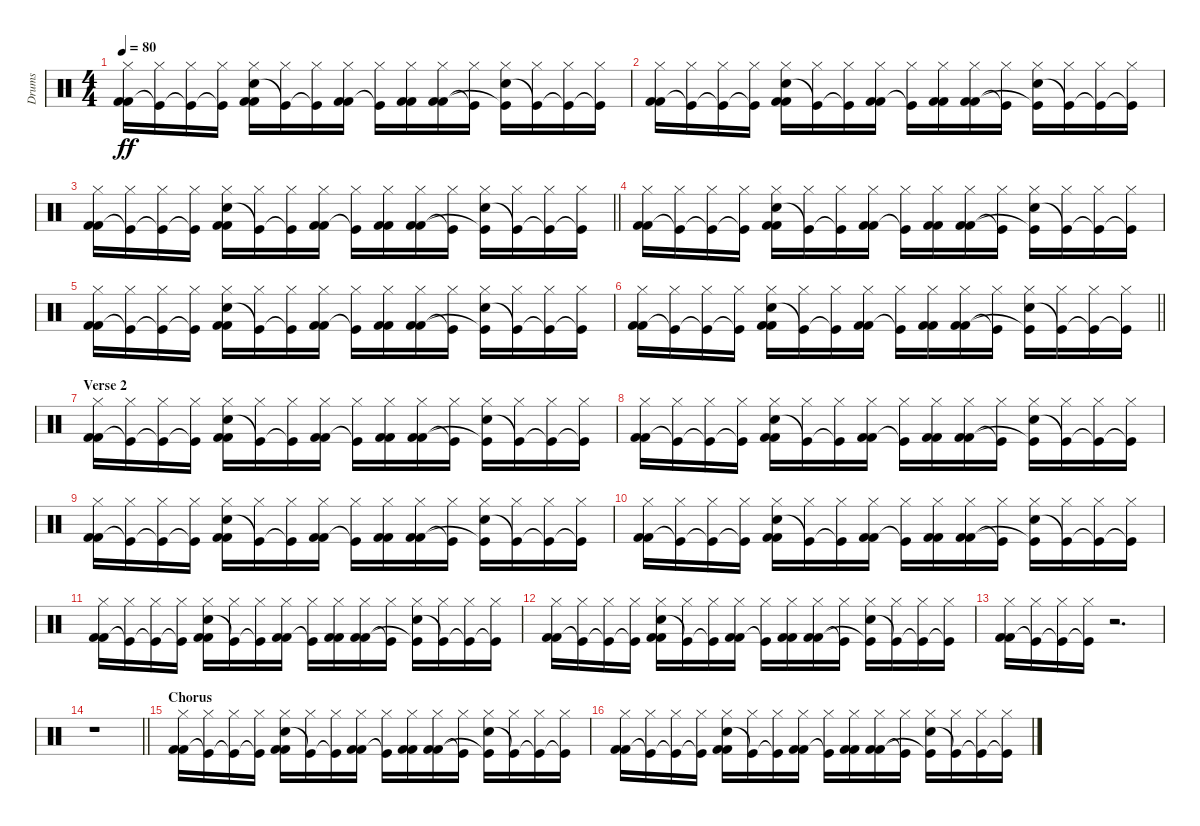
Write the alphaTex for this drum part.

\track ("Drums" "Drums") {instrument percussion}
\staff {score}
\articulation defaults
\ts (4 4)
\tempo 80
\clef neutral
\ks c
("Hi-Hat (closed)" "Kick (hit) 2" "Kick (hit) 2").16{dy ff} ("Hi-Hat (closed)" "Kick (hit)"{t}).16 ("Hi-Hat (closed)" "Kick (hit)"{t}).16 ("Hi-Hat (closed)" "Kick (hit)"{t}).16 ("Hi-Hat (closed)" "Electric Snare (hit)" "Kick (hit) 2" "Kick (hit) 2").16 ("Hi-Hat (closed)" "Kick (hit)"{t}).16 ("Hi-Hat (closed)" "Kick (hit)"{t}).16 ("Hi-Hat (closed)" "Kick (hit) 2" "Kick (hit) 2").16 ("Hi-Hat (closed)" "Kick (hit)"{t}).16 ("Hi-Hat (closed)" "Kick (hit) 2" "Kick (hit) 2").16 ("Hi-Hat (closed)" "Kick (hit) 2" "Kick (hit) 2").16 ("Hi-Hat (closed)" "Kick (hit)"{t}).16 ("Hi-Hat (closed)" "Electric Snare (hit)" "Kick (hit)"{t}).16 ("Hi-Hat (closed)" "Kick (hit)"{t}).16 ("Hi-Hat (closed)" "Kick (hit)"{t}).16 ("Hi-Hat (closed)" "Kick (hit)"{t}).16 |
("Hi-Hat (closed)" "Kick (hit) 2" "Kick (hit) 2").16 ("Hi-Hat (closed)" "Kick (hit)"{t}).16 ("Hi-Hat (closed)" "Kick (hit)"{t}).16 ("Hi-Hat (closed)" "Kick (hit)"{t}).16 ("Hi-Hat (closed)" "Electric Snare (hit)" "Kick (hit) 2" "Kick (hit) 2").16 ("Hi-Hat (closed)" "Kick (hit)"{t}).16 ("Hi-Hat (closed)" "Kick (hit)"{t}).16 ("Hi-Hat (closed)" "Kick (hit) 2" "Kick (hit) 2").16 ("Hi-Hat (closed)" "Kick (hit)"{t}).16 ("Hi-Hat (closed)" "Kick (hit) 2" "Kick (hit) 2").16 ("Hi-Hat (closed)" "Kick (hit) 2" "Kick (hit) 2").16 ("Hi-Hat (closed)" "Kick (hit)"{t}).16 ("Hi-Hat (closed)" "Electric Snare (hit)" "Kick (hit)"{t}).16 ("Hi-Hat (closed)" "Kick (hit)"{t}).16 ("Hi-Hat (closed)" "Kick (hit)"{t}).16 ("Hi-Hat (closed)" "Kick (hit)"{t}).16 |
\barLineRight lightlight
("Hi-Hat (closed)" "Kick (hit) 2" "Kick (hit) 2").16 ("Hi-Hat (closed)" "Kick (hit)"{t}).16 ("Hi-Hat (closed)" "Kick (hit)"{t}).16 ("Hi-Hat (closed)" "Kick (hit)"{t}).16 ("Hi-Hat (closed)" "Electric Snare (hit)" "Kick (hit) 2" "Kick (hit) 2").16 ("Hi-Hat (closed)" "Kick (hit)"{t}).16 ("Hi-Hat (closed)" "Kick (hit)"{t}).16 ("Hi-Hat (closed)" "Kick (hit) 2" "Kick (hit) 2").16 ("Hi-Hat (closed)" "Kick (hit)"{t}).16 ("Hi-Hat (closed)" "Kick (hit) 2" "Kick (hit) 2").16 ("Hi-Hat (closed)" "Kick (hit) 2" "Kick (hit) 2").16 ("Hi-Hat (closed)" "Kick (hit)"{t}).16 ("Hi-Hat (closed)" "Electric Snare (hit)" "Kick (hit)"{t}).16 ("Hi-Hat (closed)" "Kick (hit)"{t}).16 ("Hi-Hat (closed)" "Kick (hit)"{t}).16 ("Hi-Hat (closed)" "Kick (hit)"{t}).16 |
("Hi-Hat (closed)" "Kick (hit) 2" "Kick (hit) 2").16 ("Hi-Hat (closed)" "Kick (hit)"{t}).16 ("Hi-Hat (closed)" "Kick (hit)"{t}).16 ("Hi-Hat (closed)" "Kick (hit)"{t}).16 ("Hi-Hat (closed)" "Electric Snare (hit)" "Kick (hit) 2" "Kick (hit) 2").16 ("Hi-Hat (closed)" "Kick (hit)"{t}).16 ("Hi-Hat (closed)" "Kick (hit)"{t}).16 ("Hi-Hat (closed)" "Kick (hit) 2" "Kick (hit) 2").16 ("Hi-Hat (closed)" "Kick (hit)"{t}).16 ("Hi-Hat (closed)" "Kick (hit) 2" "Kick (hit) 2").16 ("Hi-Hat (closed)" "Kick (hit) 2" "Kick (hit) 2").16 ("Hi-Hat (closed)" "Kick (hit)"{t}).16 ("Hi-Hat (closed)" "Electric Snare (hit)" "Kick (hit)"{t}).16 ("Hi-Hat (closed)" "Kick (hit)"{t}).16 ("Hi-Hat (closed)" "Kick (hit)"{t}).16 ("Hi-Hat (closed)" "Kick (hit)"{t}).16 |
("Hi-Hat (closed)" "Kick (hit) 2" "Kick (hit) 2").16 ("Hi-Hat (closed)" "Kick (hit)"{t}).16 ("Hi-Hat (closed)" "Kick (hit)"{t}).16 ("Hi-Hat (closed)" "Kick (hit)"{t}).16 ("Hi-Hat (closed)" "Electric Snare (hit)" "Kick (hit) 2" "Kick (hit) 2").16 ("Hi-Hat (closed)" "Kick (hit)"{t}).16 ("Hi-Hat (closed)" "Kick (hit)"{t}).16 ("Hi-Hat (closed)" "Kick (hit) 2" "Kick (hit) 2").16 ("Hi-Hat (closed)" "Kick (hit)"{t}).16 ("Hi-Hat (closed)" "Kick (hit) 2" "Kick (hit) 2").16 ("Hi-Hat (closed)" "Kick (hit) 2" "Kick (hit) 2").16 ("Hi-Hat (closed)" "Kick (hit)"{t}).16 ("Hi-Hat (closed)" "Electric Snare (hit)" "Kick (hit)"{t}).16 ("Hi-Hat (closed)" "Kick (hit)"{t}).16 ("Hi-Hat (closed)" "Kick (hit)"{t}).16 ("Hi-Hat (closed)" "Kick (hit)"{t}).16 |
\barLineRight lightlight
("Hi-Hat (closed)" "Kick (hit) 2" "Kick (hit) 2").16 ("Hi-Hat (closed)" "Kick (hit)"{t}).16 ("Hi-Hat (closed)" "Kick (hit)"{t}).16 ("Hi-Hat (closed)" "Kick (hit)"{t}).16 ("Hi-Hat (closed)" "Electric Snare (hit)" "Kick (hit) 2" "Kick (hit) 2").16 ("Hi-Hat (closed)" "Kick (hit)"{t}).16 ("Hi-Hat (closed)" "Kick (hit)"{t}).16 ("Hi-Hat (closed)" "Kick (hit) 2" "Kick (hit) 2").16 ("Hi-Hat (closed)" "Kick (hit)"{t}).16 ("Hi-Hat (closed)" "Kick (hit) 2" "Kick (hit) 2").16 ("Hi-Hat (closed)" "Kick (hit) 2" "Kick (hit) 2").16 ("Hi-Hat (closed)" "Kick (hit)"{t}).16 ("Hi-Hat (closed)" "Electric Snare (hit)" "Kick (hit)"{t}).16 ("Hi-Hat (closed)" "Kick (hit)"{t}).16 ("Hi-Hat (closed)" "Kick (hit)"{t}).16 ("Hi-Hat (closed)" "Kick (hit)"{t}).16 |
\section ("" "Verse 2")
("Hi-Hat (closed)" "Kick (hit) 2" "Kick (hit) 2").16 ("Hi-Hat (closed)" "Kick (hit)"{t}).16 ("Hi-Hat (closed)" "Kick (hit)"{t}).16 ("Hi-Hat (closed)" "Kick (hit)"{t}).16 ("Hi-Hat (closed)" "Electric Snare (hit)" "Kick (hit) 2" "Kick (hit) 2").16 ("Hi-Hat (closed)" "Kick (hit)"{t}).16 ("Hi-Hat (closed)" "Kick (hit)"{t}).16 ("Hi-Hat (closed)" "Kick (hit) 2" "Kick (hit) 2").16 ("Hi-Hat (closed)" "Kick (hit)"{t}).16 ("Hi-Hat (closed)" "Kick (hit) 2" "Kick (hit) 2").16 ("Hi-Hat (closed)" "Kick (hit) 2" "Kick (hit) 2").16 ("Hi-Hat (closed)" "Kick (hit)"{t}).16 ("Hi-Hat (closed)" "Electric Snare (hit)" "Kick (hit)"{t}).16 ("Hi-Hat (closed)" "Kick (hit)"{t}).16 ("Hi-Hat (closed)" "Kick (hit)"{t}).16 ("Hi-Hat (closed)" "Kick (hit)"{t}).16 |
("Hi-Hat (closed)" "Kick (hit) 2" "Kick (hit) 2").16 ("Hi-Hat (closed)" "Kick (hit)"{t}).16 ("Hi-Hat (closed)" "Kick (hit)"{t}).16 ("Hi-Hat (closed)" "Kick (hit)"{t}).16 ("Hi-Hat (closed)" "Electric Snare (hit)" "Kick (hit) 2" "Kick (hit) 2").16 ("Hi-Hat (closed)" "Kick (hit)"{t}).16 ("Hi-Hat (closed)" "Kick (hit)"{t}).16 ("Hi-Hat (closed)" "Kick (hit) 2" "Kick (hit) 2").16 ("Hi-Hat (closed)" "Kick (hit)"{t}).16 ("Hi-Hat (closed)" "Kick (hit) 2" "Kick (hit) 2").16 ("Hi-Hat (closed)" "Kick (hit) 2" "Kick (hit) 2").16 ("Hi-Hat (closed)" "Kick (hit)"{t}).16 ("Hi-Hat (closed)" "Electric Snare (hit)" "Kick (hit)"{t}).16 ("Hi-Hat (closed)" "Kick (hit)"{t}).16 ("Hi-Hat (closed)" "Kick (hit)"{t}).16 ("Hi-Hat (closed)" "Kick (hit)"{t}).16 |
("Hi-Hat (closed)" "Kick (hit) 2" "Kick (hit) 2").16 ("Hi-Hat (closed)" "Kick (hit)"{t}).16 ("Hi-Hat (closed)" "Kick (hit)"{t}).16 ("Hi-Hat (closed)" "Kick (hit)"{t}).16 ("Hi-Hat (closed)" "Electric Snare (hit)" "Kick (hit) 2" "Kick (hit) 2").16 ("Hi-Hat (closed)" "Kick (hit)"{t}).16 ("Hi-Hat (closed)" "Kick (hit)"{t}).16 ("Hi-Hat (closed)" "Kick (hit) 2" "Kick (hit) 2").16 ("Hi-Hat (closed)" "Kick (hit)"{t}).16 ("Hi-Hat (closed)" "Kick (hit) 2" "Kick (hit) 2").16 ("Hi-Hat (closed)" "Kick (hit) 2" "Kick (hit) 2").16 ("Hi-Hat (closed)" "Kick (hit)"{t}).16 ("Hi-Hat (closed)" "Electric Snare (hit)" "Kick (hit)"{t}).16 ("Hi-Hat (closed)" "Kick (hit)"{t}).16 ("Hi-Hat (closed)" "Kick (hit)"{t}).16 ("Hi-Hat (closed)" "Kick (hit)"{t}).16 |
("Hi-Hat (closed)" "Kick (hit) 2" "Kick (hit) 2").16 ("Hi-Hat (closed)" "Kick (hit)"{t}).16 ("Hi-Hat (closed)" "Kick (hit)"{t}).16 ("Hi-Hat (closed)" "Kick (hit)"{t}).16 ("Hi-Hat (closed)" "Electric Snare (hit)" "Kick (hit) 2" "Kick (hit) 2").16 ("Hi-Hat (closed)" "Kick (hit)"{t}).16 ("Hi-Hat (closed)" "Kick (hit)"{t}).16 ("Hi-Hat (closed)" "Kick (hit) 2" "Kick (hit) 2").16 ("Hi-Hat (closed)" "Kick (hit)"{t}).16 ("Hi-Hat (closed)" "Kick (hit) 2" "Kick (hit) 2").16 ("Hi-Hat (closed)" "Kick (hit) 2" "Kick (hit) 2").16 ("Hi-Hat (closed)" "Kick (hit)"{t}).16 ("Hi-Hat (closed)" "Electric Snare (hit)" "Kick (hit)"{t}).16 ("Hi-Hat (closed)" "Kick (hit)"{t}).16 ("Hi-Hat (closed)" "Kick (hit)"{t}).16 ("Hi-Hat (closed)" "Kick (hit)"{t}).16 |
("Hi-Hat (closed)" "Kick (hit) 2" "Kick (hit) 2").16 ("Hi-Hat (closed)" "Kick (hit)"{t}).16 ("Hi-Hat (closed)" "Kick (hit)"{t}).16 ("Hi-Hat (closed)" "Kick (hit)"{t}).16 ("Hi-Hat (closed)" "Electric Snare (hit)" "Kick (hit) 2" "Kick (hit) 2").16 ("Hi-Hat (closed)" "Kick (hit)"{t}).16 ("Hi-Hat (closed)" "Kick (hit)"{t}).16 ("Hi-Hat (closed)" "Kick (hit) 2" "Kick (hit) 2").16 ("Hi-Hat (closed)" "Kick (hit)"{t}).16 ("Hi-Hat (closed)" "Kick (hit) 2" "Kick (hit) 2").16 ("Hi-Hat (closed)" "Kick (hit) 2" "Kick (hit) 2").16 ("Hi-Hat (closed)" "Kick (hit)"{t}).16 ("Hi-Hat (closed)" "Electric Snare (hit)" "Kick (hit)"{t}).16 ("Hi-Hat (closed)" "Kick (hit)"{t}).16 ("Hi-Hat (closed)" "Kick (hit)"{t}).16 ("Hi-Hat (closed)" "Kick (hit)"{t}).16 |
("Hi-Hat (closed)" "Kick (hit) 2" "Kick (hit) 2").16 ("Hi-Hat (closed)" "Kick (hit)"{t}).16 ("Hi-Hat (closed)" "Kick (hit)"{t}).16 ("Hi-Hat (closed)" "Kick (hit)"{t}).16 ("Hi-Hat (closed)" "Electric Snare (hit)" "Kick (hit) 2" "Kick (hit) 2").16 ("Hi-Hat (closed)" "Kick (hit)"{t}).16 ("Hi-Hat (closed)" "Kick (hit)"{t}).16 ("Hi-Hat (closed)" "Kick (hit) 2" "Kick (hit) 2").16 ("Hi-Hat (closed)" "Kick (hit)"{t}).16 ("Hi-Hat (closed)" "Kick (hit) 2" "Kick (hit) 2").16 ("Hi-Hat (closed)" "Kick (hit) 2" "Kick (hit) 2").16 ("Hi-Hat (closed)" "Kick (hit)"{t}).16 ("Hi-Hat (closed)" "Electric Snare (hit)" "Kick (hit)"{t}).16 ("Hi-Hat (closed)" "Kick (hit)"{t}).16 ("Hi-Hat (closed)" "Kick (hit)"{t}).16 ("Hi-Hat (closed)" "Kick (hit)"{t}).16 |
("Hi-Hat (closed)" "Kick (hit) 2" "Kick (hit) 2").16 ("Hi-Hat (closed)" "Kick (hit)"{t}).16 ("Hi-Hat (closed)" "Kick (hit)"{t}).16 ("Hi-Hat (closed)" "Kick (hit)"{t}).16 r.2{d} |
\barLineRight lightlight
r.1 |
\section ("" "Chorus")
("Hi-Hat (closed)" "Kick (hit) 2" "Kick (hit) 2").16 ("Hi-Hat (closed)" "Kick (hit)"{t}).16 ("Hi-Hat (closed)" "Kick (hit)"{t}).16 ("Hi-Hat (closed)" "Kick (hit)"{t}).16 ("Hi-Hat (closed)" "Electric Snare (hit)" "Kick (hit) 2" "Kick (hit) 2").16 ("Hi-Hat (closed)" "Kick (hit)"{t}).16 ("Hi-Hat (closed)" "Kick (hit)"{t}).16 ("Hi-Hat (closed)" "Kick (hit) 2" "Kick (hit) 2").16 ("Hi-Hat (closed)" "Kick (hit)"{t}).16 ("Hi-Hat (closed)" "Kick (hit) 2" "Kick (hit) 2").16 ("Hi-Hat (closed)" "Kick (hit) 2" "Kick (hit) 2").16 ("Hi-Hat (closed)" "Kick (hit)"{t}).16 ("Hi-Hat (closed)" "Electric Snare (hit)" "Kick (hit)"{t}).16 ("Hi-Hat (closed)" "Kick (hit)"{t}).16 ("Hi-Hat (closed)" "Kick (hit)"{t}).16 ("Hi-Hat (closed)" "Kick (hit)"{t}).16 |
("Hi-Hat (closed)" "Kick (hit) 2" "Kick (hit) 2").16 ("Hi-Hat (closed)" "Kick (hit)"{t}).16 ("Hi-Hat (closed)" "Kick (hit)"{t}).16 ("Hi-Hat (closed)" "Kick (hit)"{t}).16 ("Hi-Hat (closed)" "Electric Snare (hit)" "Kick (hit) 2" "Kick (hit) 2").16 ("Hi-Hat (closed)" "Kick (hit)"{t}).16 ("Hi-Hat (closed)" "Kick (hit)"{t}).16 ("Hi-Hat (closed)" "Kick (hit) 2" "Kick (hit) 2").16 ("Hi-Hat (closed)" "Kick (hit)"{t}).16 ("Hi-Hat (closed)" "Kick (hit) 2" "Kick (hit) 2").16 ("Hi-Hat (closed)" "Kick (hit) 2" "Kick (hit) 2").16 ("Hi-Hat (closed)" "Kick (hit)"{t}).16 ("Hi-Hat (closed)" "Electric Snare (hit)" "Kick (hit)"{t}).16 ("Hi-Hat (closed)" "Kick (hit)"{t}).16 ("Hi-Hat (closed)" "Kick (hit)"{t}).16 ("Hi-Hat (closed)" "Kick (hit)"{t}).16
